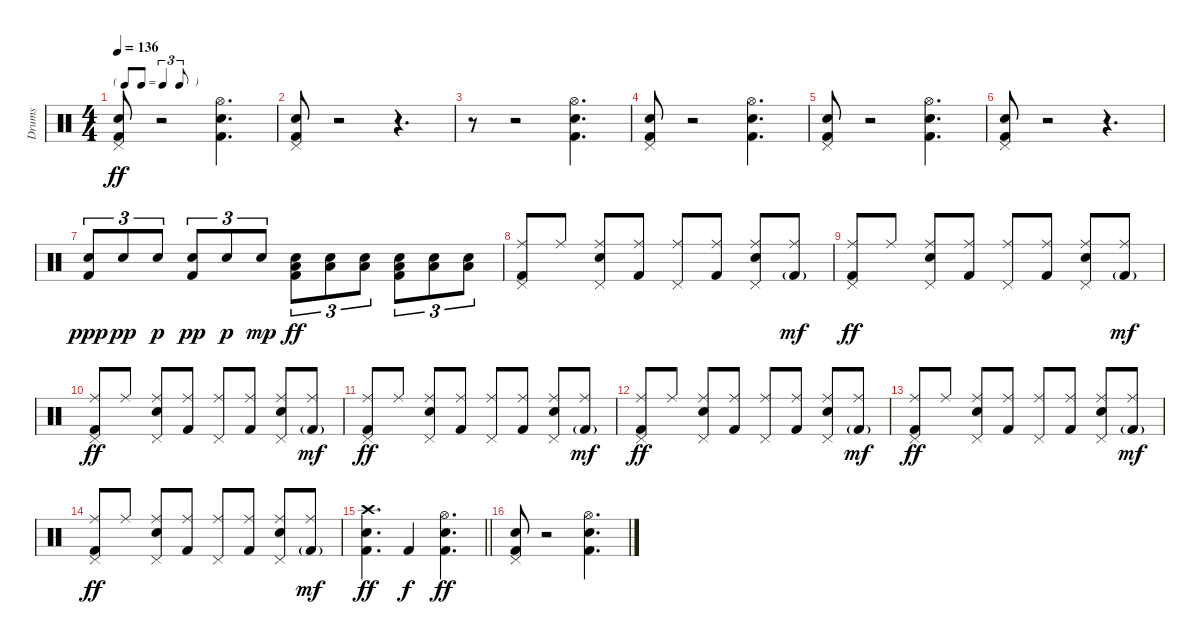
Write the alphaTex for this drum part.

\track ("Drums" "Drums") {instrument percussion}
\staff {score}
\articulation defaults
\ts (4 4)
\tf triplet8th
\tempo 136
\clef neutral
\ks c
("Pedal Hi-Hat (hit)" "Snare (hit) 2" "Kick (hit) 2").8{dy ff} r.2 ("Hi-Hat (open)" "Snare (hit) 2" "Kick (hit) 2").4{d} |
("Pedal Hi-Hat (hit)" "Snare (hit) 2" "Kick (hit) 2").8 r.2 r.4{d} |
r.8 r.2 ("Hi-Hat (open)" "Snare (hit) 2" "Kick (hit) 2").4{d} |
("Pedal Hi-Hat (hit)" "Snare (hit) 2" "Kick (hit) 2").8 r.2 ("Hi-Hat (open)" "Snare (hit) 2" "Kick (hit) 2").4{d} |
("Pedal Hi-Hat (hit)" "Snare (hit) 2" "Kick (hit) 2").8 r.2 ("Hi-Hat (open)" "Snare (hit) 2" "Kick (hit) 2").4{d} |
("Pedal Hi-Hat (hit)" "Snare (hit) 2" "Kick (hit) 2").8 r.2 r.4{d} |
("Snare (hit) 2" "Kick (hit) 2").8{tu (3 2) dy ppp} "Snare (hit) 2".8{tu (3 2) dy pp} "Snare (hit) 2".8{tu (3 2) dy p} ("Snare (hit) 2" "Kick (hit) 2").8{tu (3 2) dy pp} "Snare (hit) 2".8{tu (3 2) dy p} "Snare (hit) 2".8{tu (3 2) dy mp} ("Snare (hit) 2" "Low Floor Tom (hit)" "Kick (hit) 2").8{tu (3 2) dy ff} ("Snare (hit) 2" "Low Floor Tom (hit)").8{tu (3 2)} ("Snare (hit) 2" "Low Floor Tom (hit)").8{tu (3 2)} ("Snare (hit) 2" "Low Floor Tom (hit)" "Kick (hit) 2").8{tu (3 2)} ("Snare (hit) 2" "Low Floor Tom (hit)").8{tu (3 2)} ("Snare (hit) 2" "Low Floor Tom (hit)").8{tu (3 2)} |
("Ride (middle)" "Pedal Hi-Hat (hit)" "Kick (hit) 2").8 "Ride (middle)".8 ("Ride (middle)" "Pedal Hi-Hat (hit)" "Snare (hit) 2").8 ("Ride (middle)" "Kick (hit) 2").8 ("Ride (middle)" "Pedal Hi-Hat (hit)").8 ("Ride (middle)" "Kick (hit) 2").8 ("Ride (middle)" "Pedal Hi-Hat (hit)" "Snare (hit) 2").8 ("Ride (middle)" "Kick (hit) 2"{g}).8{dy mf} |
("Ride (middle)" "Pedal Hi-Hat (hit)" "Kick (hit) 2").8{dy ff} "Ride (middle)".8 ("Ride (middle)" "Pedal Hi-Hat (hit)" "Snare (hit) 2").8 ("Ride (middle)" "Kick (hit) 2").8 ("Ride (middle)" "Pedal Hi-Hat (hit)").8 ("Ride (middle)" "Kick (hit) 2").8 ("Ride (middle)" "Pedal Hi-Hat (hit)" "Snare (hit) 2").8 ("Ride (middle)" "Kick (hit) 2"{g}).8{dy mf} |
("Ride (middle)" "Pedal Hi-Hat (hit)" "Kick (hit) 2").8{dy ff} "Ride (middle)".8 ("Ride (middle)" "Pedal Hi-Hat (hit)" "Snare (hit) 2").8 ("Ride (middle)" "Kick (hit) 2").8 ("Ride (middle)" "Pedal Hi-Hat (hit)").8 ("Ride (middle)" "Kick (hit) 2").8 ("Ride (middle)" "Pedal Hi-Hat (hit)" "Snare (hit) 2").8 ("Ride (middle)" "Kick (hit) 2"{g}).8{dy mf} |
("Ride (middle)" "Pedal Hi-Hat (hit)" "Kick (hit) 2").8{dy ff} "Ride (middle)".8 ("Ride (middle)" "Pedal Hi-Hat (hit)" "Snare (hit) 2").8 ("Ride (middle)" "Kick (hit) 2").8 ("Ride (middle)" "Pedal Hi-Hat (hit)").8 ("Ride (middle)" "Kick (hit) 2").8 ("Ride (middle)" "Pedal Hi-Hat (hit)" "Snare (hit) 2").8 ("Ride (middle)" "Kick (hit) 2"{g}).8{dy mf} |
("Ride (middle)" "Pedal Hi-Hat (hit)" "Kick (hit) 2").8{dy ff} "Ride (middle)".8 ("Ride (middle)" "Pedal Hi-Hat (hit)" "Snare (hit) 2").8 ("Ride (middle)" "Kick (hit) 2").8 ("Ride (middle)" "Pedal Hi-Hat (hit)").8 ("Ride (middle)" "Kick (hit) 2").8 ("Ride (middle)" "Pedal Hi-Hat (hit)" "Snare (hit) 2").8 ("Ride (middle)" "Kick (hit) 2"{g}).8{dy mf} |
("Ride (middle)" "Pedal Hi-Hat (hit)" "Kick (hit) 2").8{dy ff} "Ride (middle)".8 ("Ride (middle)" "Pedal Hi-Hat (hit)" "Snare (hit) 2").8 ("Ride (middle)" "Kick (hit) 2").8 ("Ride (middle)" "Pedal Hi-Hat (hit)").8 ("Ride (middle)" "Kick (hit) 2").8 ("Ride (middle)" "Pedal Hi-Hat (hit)" "Snare (hit) 2").8 ("Ride (middle)" "Kick (hit) 2"{g}).8{dy mf} |
("Ride (middle)" "Pedal Hi-Hat (hit)" "Kick (hit) 2").8{dy ff} "Ride (middle)".8 ("Ride (middle)" "Pedal Hi-Hat (hit)" "Snare (hit) 2").8 ("Ride (middle)" "Kick (hit) 2").8 ("Ride (middle)" "Pedal Hi-Hat (hit)").8 ("Ride (middle)" "Kick (hit) 2").8 ("Ride (middle)" "Pedal Hi-Hat (hit)" "Snare (hit) 2").8 ("Ride (middle)" "Kick (hit) 2"{g}).8{dy mf} |
\barLineRight lightlight
("Crash high (hit)" "Snare (hit) 2" "Kick (hit) 2").4{d dy ff} "Kick (hit) 2".4{dy f} ("Hi-Hat (open)" "Snare (hit) 2" "Kick (hit) 2").4{d dy ff} |
("Pedal Hi-Hat (hit)" "Snare (hit) 2" "Kick (hit) 2").8 r.2 ("Hi-Hat (open)" "Snare (hit) 2" "Kick (hit) 2").4{d}
